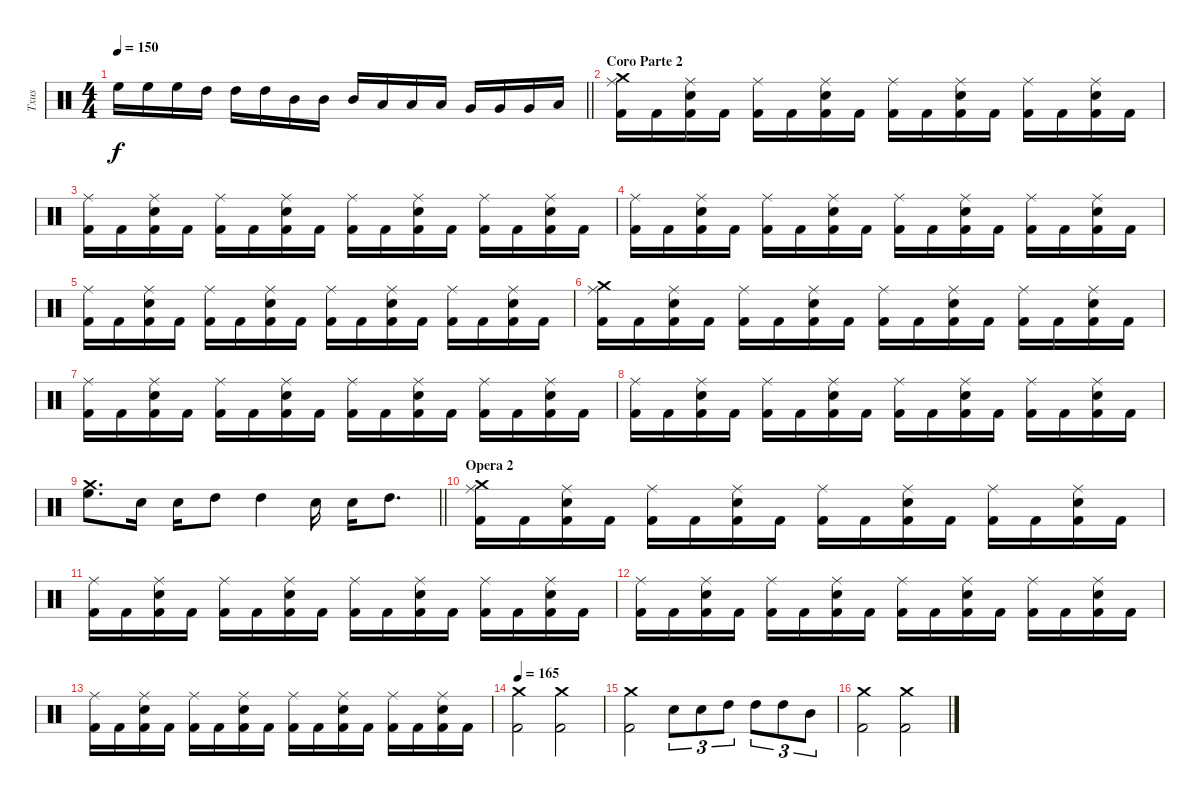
\track ("Txus" "Txus") {instrument percussion}
\staff {score}
\articulation defaults
\ts (4 4)
\tempo 150
\clef neutral
\barLineRight lightlight
\ks c "High Floor Tom (hit)".16{dy f} "High Floor Tom (hit)".16 "High Floor Tom (hit)".16 "High Tom (hit)".16 "High Tom (hit)".16 "High Tom (hit)".16 "Mid Tom (hit)".16 "Mid Tom (hit)".16 "Mid Tom (hit)".16 "Low Tom (hit)".16 "Low Tom (hit)".16 "Low Tom (hit)".16 "Very Low Tom (hit)".16 "Very Low Tom (hit)".16 "Very Low Tom (hit)".16 "Low Floor Tom (hit)".16
|
\section ("" "Coro Parte 2")
("Crash medium (hit)" "Ride (middle)" "Kick (hit) 2").16 "Kick (hit) 2".16 ("Ride (middle)" "Electric Snare (hit)" "Kick (hit) 2").16 "Kick (hit) 2".16 ("Ride (middle)" "Kick (hit) 2").16 "Kick (hit) 2".16 ("Ride (middle)" "Electric Snare (hit)" "Kick (hit) 2").16 "Kick (hit) 2".16 ("Ride (middle)" "Kick (hit) 2").16 "Kick (hit) 2".16 ("Ride (middle)" "Electric Snare (hit)" "Kick (hit) 2").16 "Kick (hit) 2".16 ("Ride (middle)" "Kick (hit) 2").16 "Kick (hit) 2".16 ("Ride (middle)" "Electric Snare (hit)" "Kick (hit) 2").16 "Kick (hit) 2".16 |
("Ride (middle)" "Kick (hit) 2").16 "Kick (hit) 2".16 ("Ride (middle)" "Electric Snare (hit)" "Kick (hit) 2").16 "Kick (hit) 2".16 ("Ride (middle)" "Kick (hit) 2").16 "Kick (hit) 2".16 ("Ride (middle)" "Electric Snare (hit)" "Kick (hit) 2").16 "Kick (hit) 2".16 ("Ride (middle)" "Kick (hit) 2").16 "Kick (hit) 2".16 ("Ride (middle)" "Electric Snare (hit)" "Kick (hit) 2").16 "Kick (hit) 2".16 ("Ride (middle)" "Kick (hit) 2").16 "Kick (hit) 2".16 ("Ride (middle)" "Electric Snare (hit)" "Kick (hit) 2").16 "Kick (hit) 2".16 |
("Ride (middle)" "Kick (hit) 2").16 "Kick (hit) 2".16 ("Ride (middle)" "Electric Snare (hit)" "Kick (hit) 2").16 "Kick (hit) 2".16 ("Ride (middle)" "Kick (hit) 2").16 "Kick (hit) 2".16 ("Ride (middle)" "Electric Snare (hit)" "Kick (hit) 2").16 "Kick (hit) 2".16 ("Ride (middle)" "Kick (hit) 2").16 "Kick (hit) 2".16 ("Ride (middle)" "Electric Snare (hit)" "Kick (hit) 2").16 "Kick (hit) 2".16 ("Ride (middle)" "Kick (hit) 2").16 "Kick (hit) 2".16 ("Ride (middle)" "Electric Snare (hit)" "Kick (hit) 2").16 "Kick (hit) 2".16 |
("Ride (middle)" "Kick (hit) 2").16 "Kick (hit) 2".16 ("Ride (middle)" "Electric Snare (hit)" "Kick (hit) 2").16 "Kick (hit) 2".16 ("Ride (middle)" "Kick (hit) 2").16 "Kick (hit) 2".16 ("Ride (middle)" "Electric Snare (hit)" "Kick (hit) 2").16 "Kick (hit) 2".16 ("Ride (middle)" "Kick (hit) 2").16 "Kick (hit) 2".16 ("Ride (middle)" "Electric Snare (hit)" "Kick (hit) 2").16 "Kick (hit) 2".16 ("Ride (middle)" "Kick (hit) 2").16 "Kick (hit) 2".16 ("Ride (middle)" "Electric Snare (hit)" "Kick (hit) 2").16 "Kick (hit) 2".16 |
("Crash medium (hit)" "Ride (middle)" "Kick (hit) 2").16 "Kick (hit) 2".16 ("Ride (middle)" "Electric Snare (hit)" "Kick (hit) 2").16 "Kick (hit) 2".16 ("Ride (middle)" "Kick (hit) 2").16 "Kick (hit) 2".16 ("Ride (middle)" "Electric Snare (hit)" "Kick (hit) 2").16 "Kick (hit) 2".16 ("Ride (middle)" "Kick (hit) 2").16 "Kick (hit) 2".16 ("Ride (middle)" "Electric Snare (hit)" "Kick (hit) 2").16 "Kick (hit) 2".16 ("Ride (middle)" "Kick (hit) 2").16 "Kick (hit) 2".16 ("Ride (middle)" "Electric Snare (hit)" "Kick (hit) 2").16 "Kick (hit) 2".16 |
("Ride (middle)" "Kick (hit) 2").16 "Kick (hit) 2".16 ("Ride (middle)" "Electric Snare (hit)" "Kick (hit) 2").16 "Kick (hit) 2".16 ("Ride (middle)" "Kick (hit) 2").16 "Kick (hit) 2".16 ("Ride (middle)" "Electric Snare (hit)" "Kick (hit) 2").16 "Kick (hit) 2".16 ("Ride (middle)" "Kick (hit) 2").16 "Kick (hit) 2".16 ("Ride (middle)" "Electric Snare (hit)" "Kick (hit) 2").16 "Kick (hit) 2".16 ("Ride (middle)" "Kick (hit) 2").16 "Kick (hit) 2".16 ("Ride (middle)" "Electric Snare (hit)" "Kick (hit) 2").16 "Kick (hit) 2".16 |
("Ride (middle)" "Kick (hit) 2").16 "Kick (hit) 2".16 ("Ride (middle)" "Electric Snare (hit)" "Kick (hit) 2").16 "Kick (hit) 2".16 ("Ride (middle)" "Kick (hit) 2").16 "Kick (hit) 2".16 ("Ride (middle)" "Electric Snare (hit)" "Kick (hit) 2").16 "Kick (hit) 2".16 ("Ride (middle)" "Kick (hit) 2").16 "Kick (hit) 2".16 ("Ride (middle)" "Electric Snare (hit)" "Kick (hit) 2").16 "Kick (hit) 2".16 ("Ride (middle)" "Kick (hit) 2").16 "Kick (hit) 2".16 ("Ride (middle)" "Electric Snare (hit)" "Kick (hit) 2").16 "Kick (hit) 2".16 |
\barLineRight lightlight
("Crash medium (hit)" "High Floor Tom (hit)").8{d} "Electric Snare (hit)".16 "Electric Snare (hit)".16 "High Tom (hit)".8 "High Tom (hit)".4 "Electric Snare (hit)".16 "Electric Snare (hit)".16 "High Tom (hit)".8{d} |
\section ("" "Opera 2")
("Crash medium (hit)" "Ride (middle)" "Kick (hit) 2").16 "Kick (hit) 2".16 ("Ride (middle)" "Electric Snare (hit)" "Kick (hit) 2").16 "Kick (hit) 2".16 ("Ride (middle)" "Kick (hit) 2").16 "Kick (hit) 2".16 ("Ride (middle)" "Electric Snare (hit)" "Kick (hit) 2").16 "Kick (hit) 2".16 ("Ride (middle)" "Kick (hit) 2").16 "Kick (hit) 2".16 ("Ride (middle)" "Electric Snare (hit)" "Kick (hit) 2").16 "Kick (hit) 2".16 ("Ride (middle)" "Kick (hit) 2").16 "Kick (hit) 2".16 ("Ride (middle)" "Electric Snare (hit)" "Kick (hit) 2").16 "Kick (hit) 2".16 |
("Ride (middle)" "Kick (hit) 2").16 "Kick (hit) 2".16 ("Ride (middle)" "Electric Snare (hit)" "Kick (hit) 2").16 "Kick (hit) 2".16 ("Ride (middle)" "Kick (hit) 2").16 "Kick (hit) 2".16 ("Ride (middle)" "Electric Snare (hit)" "Kick (hit) 2").16 "Kick (hit) 2".16 ("Ride (middle)" "Kick (hit) 2").16 "Kick (hit) 2".16 ("Ride (middle)" "Electric Snare (hit)" "Kick (hit) 2").16 "Kick (hit) 2".16 ("Ride (middle)" "Kick (hit) 2").16 "Kick (hit) 2".16 ("Ride (middle)" "Electric Snare (hit)" "Kick (hit) 2").16 "Kick (hit) 2".16 |
("Ride (middle)" "Kick (hit) 2").16 "Kick (hit) 2".16 ("Ride (middle)" "Electric Snare (hit)" "Kick (hit) 2").16 "Kick (hit) 2".16 ("Ride (middle)" "Kick (hit) 2").16 "Kick (hit) 2".16 ("Ride (middle)" "Electric Snare (hit)" "Kick (hit) 2").16 "Kick (hit) 2".16 ("Ride (middle)" "Kick (hit) 2").16 "Kick (hit) 2".16 ("Ride (middle)" "Electric Snare (hit)" "Kick (hit) 2").16 "Kick (hit) 2".16 ("Ride (middle)" "Kick (hit) 2").16 "Kick (hit) 2".16 ("Ride (middle)" "Electric Snare (hit)" "Kick (hit) 2").16 "Kick (hit) 2".16 |
("Ride (middle)" "Kick (hit) 2").16 "Kick (hit) 2".16 ("Ride (middle)" "Electric Snare (hit)" "Kick (hit) 2").16 "Kick (hit) 2".16 ("Ride (middle)" "Kick (hit) 2").16 "Kick (hit) 2".16 ("Ride (middle)" "Electric Snare (hit)" "Kick (hit) 2").16 "Kick (hit) 2".16 ("Ride (middle)" "Kick (hit) 2").16 "Kick (hit) 2".16 ("Ride (middle)" "Electric Snare (hit)" "Kick (hit) 2").16 "Kick (hit) 2".16 ("Ride (middle)" "Kick (hit) 2").16 "Kick (hit) 2".16 ("Ride (middle)" "Electric Snare (hit)" "Kick (hit) 2").16 "Kick (hit) 2".16 |
\tempo 165
("Crash medium (hit)" "Kick (hit) 2").2 ("Crash medium (hit)" "Kick (hit) 2").2 |
("Crash medium (hit)" "Kick (hit) 2").2 "Electric Snare (hit)".8{tu (3 2)} "Electric Snare (hit)".8{tu (3 2)} "High Tom (hit)".8{tu (3 2)} "High Tom (hit)".8{tu (3 2)} "High Tom (hit)".8{tu (3 2)} "Mid Tom (hit)".8{tu (3 2)} |
("Crash medium (hit)" "Kick (hit) 2").2 ("Crash medium (hit)" "Kick (hit) 2").2
